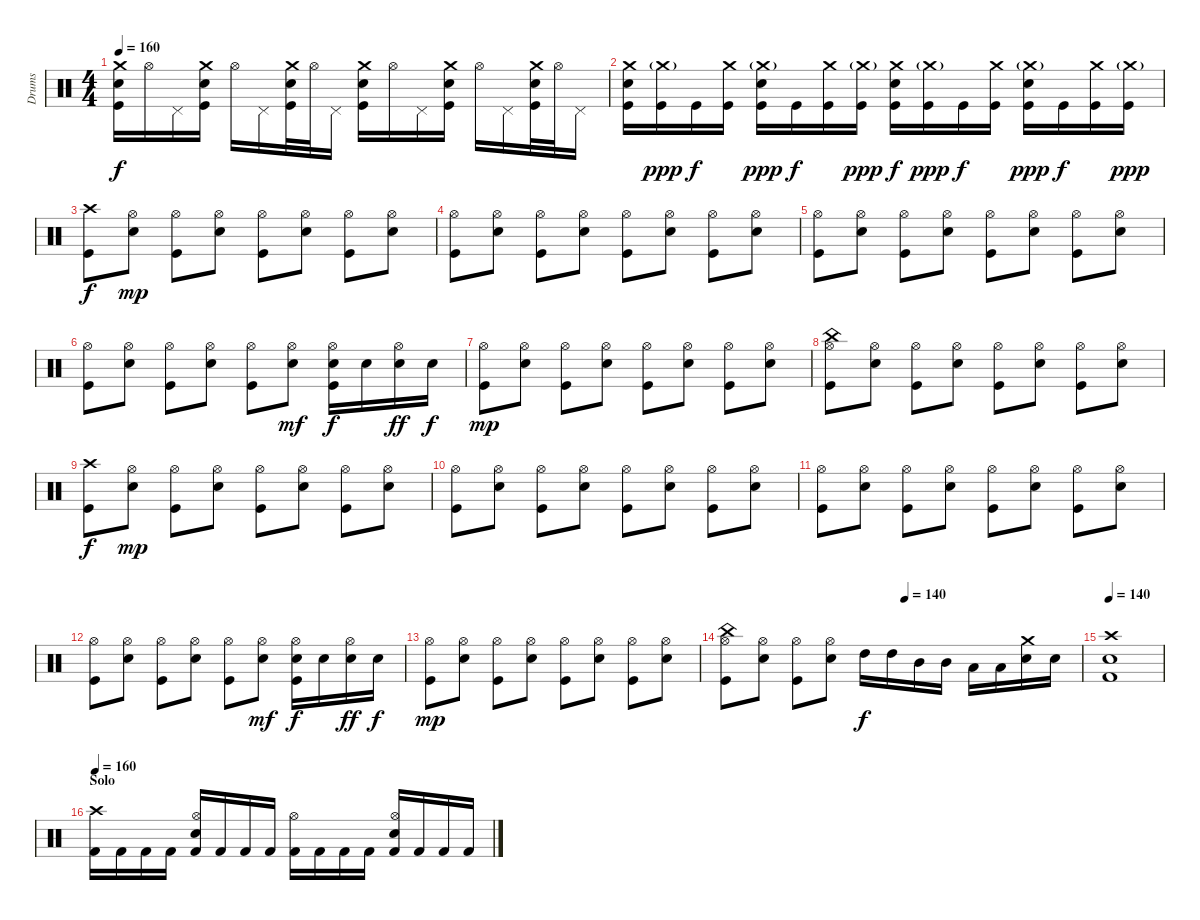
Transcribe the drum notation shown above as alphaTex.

\track ("Drums" "Drums") {instrument percussion}
\staff {score}
\articulation defaults
\ts (4 4)
\tempo 160
\clef neutral
\ks c
("Crash medium (hit)" "Electric Snare (hit)" "Kick (hit)").16{dy f} "Hi-Hat (open)".16 "Pedal Hi-Hat (hit)".16 ("Crash medium (hit)" "Electric Snare (hit)" "Kick (hit)").16 "Hi-Hat (open)".16 "Pedal Hi-Hat (hit)".16 ("Crash medium (hit)" "Electric Snare (hit)" "Kick (hit)").32 "Hi-Hat (open)".32 "Pedal Hi-Hat (hit)".16 ("Crash medium (hit)" "Electric Snare (hit)" "Kick (hit)").16 "Hi-Hat (open)".16 "Pedal Hi-Hat (hit)".16 ("Crash medium (hit)" "Electric Snare (hit)" "Kick (hit)").16 "Hi-Hat (open)".16 "Pedal Hi-Hat (hit)".16 ("Crash medium (hit)" "Electric Snare (hit)" "Kick (hit)").32 "Hi-Hat (open)".32 "Pedal Hi-Hat (hit)".16 |
("Crash medium (hit)" "Electric Snare (hit)" "Kick (hit)").16 ("Crash medium (hit)"{g} "Kick (hit)").16{dy ppp} "Kick (hit)".16{dy f} ("Crash medium (hit)" "Kick (hit)").16 ("Crash medium (hit)"{g} "Electric Snare (hit)" "Kick (hit)").16{dy ppp} "Kick (hit)".16{dy f} ("Crash medium (hit)" "Kick (hit)").16 ("Crash medium (hit)"{g} "Kick (hit)").16{dy ppp} ("Crash medium (hit)" "Electric Snare (hit)" "Kick (hit)").16{dy f} ("Crash medium (hit)"{g} "Kick (hit)").16{dy ppp} "Kick (hit)".16{dy f} ("Crash medium (hit)" "Kick (hit)").16 ("Crash medium (hit)"{g} "Electric Snare (hit)" "Kick (hit)").16{dy ppp} "Kick (hit)".16{dy f} ("Crash medium (hit)" "Kick (hit)").16 ("Crash medium (hit)"{g} "Kick (hit)").16{dy ppp} |
("Crash high (hit)" "Kick (hit)").8{dy f} ("Hi-Hat (open)" "Electric Snare (hit)").8{dy mp} ("Hi-Hat (open)" "Kick (hit)").8 ("Hi-Hat (open)" "Electric Snare (hit)").8 ("Hi-Hat (open)" "Kick (hit)").8 ("Hi-Hat (open)" "Electric Snare (hit)").8 ("Hi-Hat (open)" "Kick (hit)").8 ("Hi-Hat (open)" "Electric Snare (hit)").8 |
("Hi-Hat (open)" "Kick (hit)").8 ("Hi-Hat (open)" "Electric Snare (hit)").8 ("Hi-Hat (open)" "Kick (hit)").8 ("Hi-Hat (open)" "Electric Snare (hit)").8 ("Hi-Hat (open)" "Kick (hit)").8 ("Hi-Hat (open)" "Electric Snare (hit)").8 ("Hi-Hat (open)" "Kick (hit)").8 ("Hi-Hat (open)" "Electric Snare (hit)").8 |
("Hi-Hat (open)" "Kick (hit)").8 ("Hi-Hat (open)" "Electric Snare (hit)").8 ("Hi-Hat (open)" "Kick (hit)").8 ("Hi-Hat (open)" "Electric Snare (hit)").8 ("Hi-Hat (open)" "Kick (hit)").8 ("Hi-Hat (open)" "Electric Snare (hit)").8 ("Hi-Hat (open)" "Kick (hit)").8 ("Hi-Hat (open)" "Electric Snare (hit)").8 |
("Hi-Hat (open)" "Kick (hit)").8 ("Hi-Hat (open)" "Electric Snare (hit)").8 ("Hi-Hat (open)" "Kick (hit)").8 ("Hi-Hat (open)" "Electric Snare (hit)").8 ("Hi-Hat (open)" "Kick (hit)").8 ("Hi-Hat (open)" "Electric Snare (hit)").8{dy mf} ("Hi-Hat (open)" "Electric Snare (hit)" "Kick (hit)").16{dy f} "Electric Snare (hit)".16 ("Hi-Hat (open)" "Electric Snare (hit)").16{dy ff} "Electric Snare (hit)".16{dy f} |
("Hi-Hat (open)" "Kick (hit)").8{dy mp} ("Hi-Hat (open)" "Electric Snare (hit)").8 ("Hi-Hat (open)" "Kick (hit)").8 ("Hi-Hat (open)" "Electric Snare (hit)").8 ("Hi-Hat (open)" "Kick (hit)").8 ("Hi-Hat (open)" "Electric Snare (hit)").8 ("Hi-Hat (open)" "Kick (hit)").8 ("Hi-Hat (open)" "Electric Snare (hit)").8 |
("China (hit)" "Hi-Hat (open)" "Kick (hit)").8 ("Hi-Hat (open)" "Electric Snare (hit)").8 ("Hi-Hat (open)" "Kick (hit)").8 ("Hi-Hat (open)" "Electric Snare (hit)").8 ("Hi-Hat (open)" "Kick (hit)").8 ("Hi-Hat (open)" "Electric Snare (hit)").8 ("Hi-Hat (open)" "Kick (hit)").8 ("Hi-Hat (open)" "Electric Snare (hit)").8 |
("Crash high (hit)" "Kick (hit)").8{dy f} ("Hi-Hat (open)" "Electric Snare (hit)").8{dy mp} ("Hi-Hat (open)" "Kick (hit)").8 ("Hi-Hat (open)" "Electric Snare (hit)").8 ("Hi-Hat (open)" "Kick (hit)").8 ("Hi-Hat (open)" "Electric Snare (hit)").8 ("Hi-Hat (open)" "Kick (hit)").8 ("Hi-Hat (open)" "Electric Snare (hit)").8 |
("Hi-Hat (open)" "Kick (hit)").8 ("Hi-Hat (open)" "Electric Snare (hit)").8 ("Hi-Hat (open)" "Kick (hit)").8 ("Hi-Hat (open)" "Electric Snare (hit)").8 ("Hi-Hat (open)" "Kick (hit)").8 ("Hi-Hat (open)" "Electric Snare (hit)").8 ("Hi-Hat (open)" "Kick (hit)").8 ("Hi-Hat (open)" "Electric Snare (hit)").8 |
("Hi-Hat (open)" "Kick (hit)").8 ("Hi-Hat (open)" "Electric Snare (hit)").8 ("Hi-Hat (open)" "Kick (hit)").8 ("Hi-Hat (open)" "Electric Snare (hit)").8 ("Hi-Hat (open)" "Kick (hit)").8 ("Hi-Hat (open)" "Electric Snare (hit)").8 ("Hi-Hat (open)" "Kick (hit)").8 ("Hi-Hat (open)" "Electric Snare (hit)").8 |
("Hi-Hat (open)" "Kick (hit)").8 ("Hi-Hat (open)" "Electric Snare (hit)").8 ("Hi-Hat (open)" "Kick (hit)").8 ("Hi-Hat (open)" "Electric Snare (hit)").8 ("Hi-Hat (open)" "Kick (hit)").8 ("Hi-Hat (open)" "Electric Snare (hit)").8{dy mf} ("Hi-Hat (open)" "Electric Snare (hit)" "Kick (hit)").16{dy f} "Electric Snare (hit)".16 ("Hi-Hat (open)" "Electric Snare (hit)").16{dy ff} "Electric Snare (hit)".16{dy f} |
("Hi-Hat (open)" "Kick (hit)").8{dy mp} ("Hi-Hat (open)" "Electric Snare (hit)").8 ("Hi-Hat (open)" "Kick (hit)").8 ("Hi-Hat (open)" "Electric Snare (hit)").8 ("Hi-Hat (open)" "Kick (hit)").8 ("Hi-Hat (open)" "Electric Snare (hit)").8 ("Hi-Hat (open)" "Kick (hit)").8 ("Hi-Hat (open)" "Electric Snare (hit)").8 |
\tempo (140 0.5)
("China (hit)" "Hi-Hat (open)" "Kick (hit)").8 ("Hi-Hat (open)" "Electric Snare (hit)").8 ("Hi-Hat (open)" "Kick (hit)").8 ("Hi-Hat (open)" "Electric Snare (hit)").8 "High Tom (hit)".16{dy f} "High Tom (hit)".16 "Mid Tom (hit)".16 "Mid Tom (hit)".16 "Low Tom (hit)".16 "Low Tom (hit)".16 ("Crash medium (hit)" "Electric Snare (hit)").16 "Electric Snare (hit)".16 |
\tempo 140
("Crash high (hit)" "Electric Snare (hit)" "Kick (hit) 2").1 |
\section ("" "Solo")
\tempo 160
("Crash high (hit)" "Kick (hit) 2").16 "Kick (hit) 2".16 "Kick (hit) 2".16 "Kick (hit) 2".16 ("Hi-Hat (open)" "Electric Snare (hit)" "Kick (hit) 2").16 "Kick (hit) 2".16 "Kick (hit) 2".16 "Kick (hit) 2".16 ("Hi-Hat (open)" "Kick (hit) 2").16 "Kick (hit) 2".16 "Kick (hit) 2".16 "Kick (hit) 2".16 ("Hi-Hat (open)" "Electric Snare (hit)" "Kick (hit) 2").16 "Kick (hit) 2".16 "Kick (hit) 2".16 "Kick (hit) 2".16
